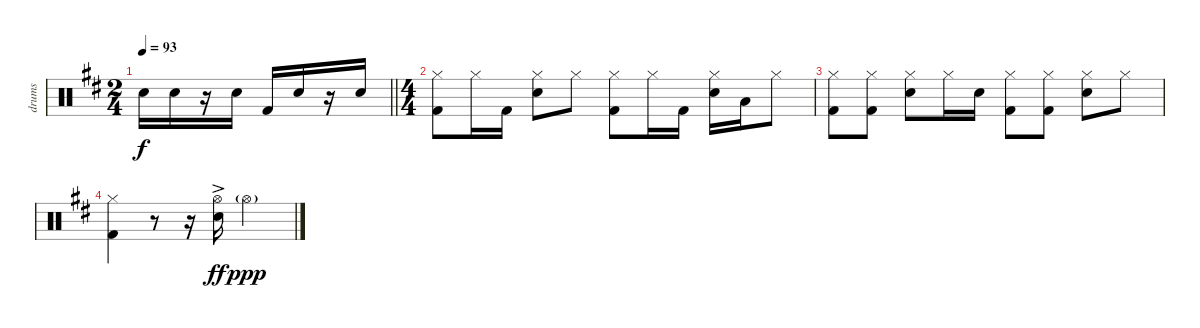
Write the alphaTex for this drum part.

\track ("drums" "drums") {instrument percussion}
\staff {score}
\articulation defaults
\ts (2 4)
\tempo 93
\clef neutral
\barLineRight lightlight
\ks d "Electric Snare (hit)".16{dy f} "Electric Snare (hit)".16
r.16 "Electric Snare (hit)".16 "Kick (hit) 2".16 "Electric Snare (hit)".16 r.16 "Electric Snare (hit)".16 |
\ts (4 4)
("Hi-Hat (closed)" "Kick (hit) 2").8 "Hi-Hat (closed)".16 "Kick (hit) 2".16 ("Hi-Hat (closed)" "Electric Snare (hit)").8 "Hi-Hat (closed)".8 ("Hi-Hat (closed)" "Kick (hit) 2").8 "Hi-Hat (closed)".16 "Kick (hit) 2".16 ("Hi-Hat (closed)" "Electric Snare (hit)").16 "Low Tom (hit)".16 "Hi-Hat (closed)".8 |
("Hi-Hat (closed)" "Kick (hit) 2").8 ("Hi-Hat (closed)" "Kick (hit) 2").8 ("Hi-Hat (closed)" "Electric Snare (hit)").8 "Hi-Hat (closed)".16 "Electric Snare (hit)".16 ("Hi-Hat (closed)" "Kick (hit) 2").8 ("Hi-Hat (closed)" "Kick (hit) 2").8 ("Hi-Hat (closed)" "Electric Snare (hit)").8 "Hi-Hat (closed)".8 |
("Hi-Hat (closed)" "Kick (hit) 2").4 r.8 r.16 ("Hi-Hat (open)"{ac} "Electric Snare (hit)"{ac}).16{dy ff} "Hi-Hat (open)"{g}.2{dy ppp}
